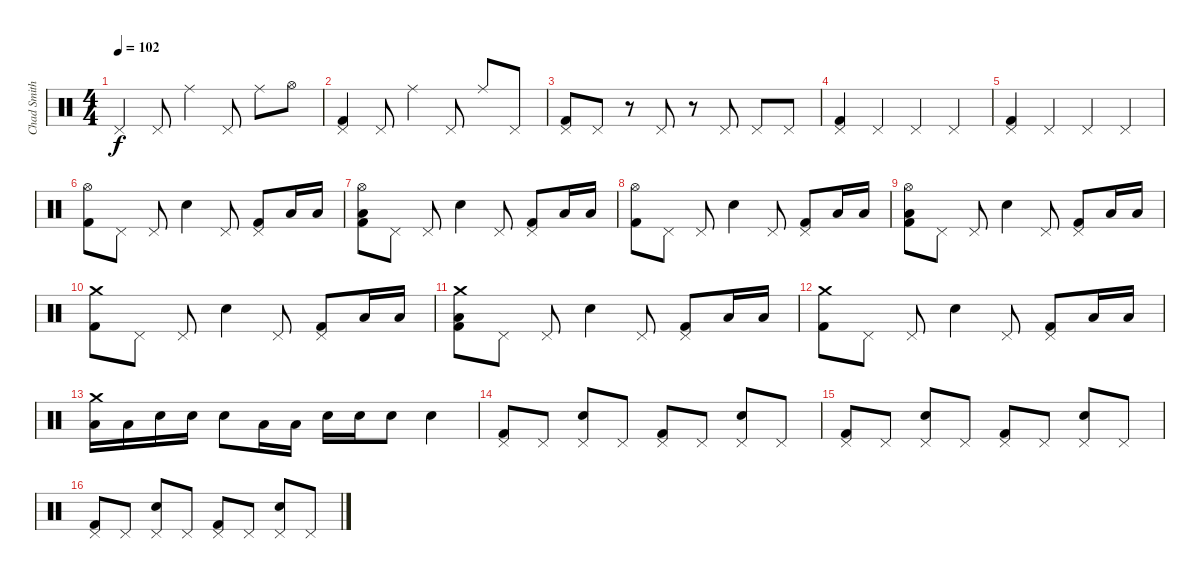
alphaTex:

\track ("Chad Smith (Batterie)" "Chad Smith") {instrument percussion}
\staff {score}
\articulation defaults
\ts (4 4)
\tempo 102
\clef neutral
\ks c "Pedal Hi-Hat (hit)".4{dy f} "Pedal Hi-Hat (hit)".8 "Ride (middle)".4 "Pedal Hi-Hat (hit)".8 "Ride (middle)".8 "Hi-Hat (open)".8
|
("Pedal Hi-Hat (hit)" "Kick (hit) 2").4 "Pedal Hi-Hat (hit)".8 "Ride (middle)".4 "Pedal Hi-Hat (hit)".8 "Ride (middle)".8 "Pedal Hi-Hat (hit)".8 |
("Pedal Hi-Hat (hit)" "Kick (hit) 2").8 "Pedal Hi-Hat (hit)".8 r.8 "Pedal Hi-Hat (hit)".8 r.8 "Pedal Hi-Hat (hit)".8 "Pedal Hi-Hat (hit)".8 "Pedal Hi-Hat (hit)".8 |
("Pedal Hi-Hat (hit)" "Kick (hit) 2").4 "Pedal Hi-Hat (hit)".4 "Pedal Hi-Hat (hit)".4 "Pedal Hi-Hat (hit)".4 |
("Pedal Hi-Hat (hit)" "Kick (hit) 2").4 "Pedal Hi-Hat (hit)".4 "Pedal Hi-Hat (hit)".4 "Pedal Hi-Hat (hit)".4 |
("Hi-Hat (open)" "Kick (hit) 2").8 "Pedal Hi-Hat (hit)".8 "Pedal Hi-Hat (hit)".8 "Electric Snare (hit)".4 "Pedal Hi-Hat (hit)".8 ("Pedal Hi-Hat (hit)" "Kick (hit) 2").8 "Low Tom (hit)".16 "Low Tom (hit)".16 |
("Hi-Hat (open)" "Low Tom (hit)" "Kick (hit) 2").8 "Pedal Hi-Hat (hit)".8 "Pedal Hi-Hat (hit)".8 "Electric Snare (hit)".4 "Pedal Hi-Hat (hit)".8 ("Pedal Hi-Hat (hit)" "Kick (hit) 2").8 "Low Tom (hit)".16 "Low Tom (hit)".16 |
("Hi-Hat (open)" "Kick (hit) 2").8 "Pedal Hi-Hat (hit)".8 "Pedal Hi-Hat (hit)".8 "Electric Snare (hit)".4 "Pedal Hi-Hat (hit)".8 ("Pedal Hi-Hat (hit)" "Kick (hit) 2").8 "Low Tom (hit)".16 "Low Tom (hit)".16 |
("Hi-Hat (open)" "Low Tom (hit)" "Kick (hit) 2").8 "Pedal Hi-Hat (hit)".8 "Pedal Hi-Hat (hit)".8 "Electric Snare (hit)".4 "Pedal Hi-Hat (hit)".8 ("Pedal Hi-Hat (hit)" "Kick (hit) 2").8 "Low Tom (hit)".16 "Low Tom (hit)".16 |
("Crash medium (hit)" "Kick (hit) 2").8 "Pedal Hi-Hat (hit)".8 "Pedal Hi-Hat (hit)".8 "Electric Snare (hit)".4 "Pedal Hi-Hat (hit)".8 ("Pedal Hi-Hat (hit)" "Kick (hit) 2").8 "Low Tom (hit)".16 "Low Tom (hit)".16 |
("Crash medium (hit)" "Low Tom (hit)" "Kick (hit) 2").8 "Pedal Hi-Hat (hit)".8 "Pedal Hi-Hat (hit)".8 "Electric Snare (hit)".4 "Pedal Hi-Hat (hit)".8 ("Pedal Hi-Hat (hit)" "Kick (hit) 2").8 "Low Tom (hit)".16 "Low Tom (hit)".16 |
("Crash medium (hit)" "Kick (hit) 2").8 "Pedal Hi-Hat (hit)".8 "Pedal Hi-Hat (hit)".8 "Electric Snare (hit)".4 "Pedal Hi-Hat (hit)".8 ("Pedal Hi-Hat (hit)" "Kick (hit) 2").8 "Low Tom (hit)".16 "Low Tom (hit)".16 |
("Crash medium (hit)" "Low Tom (hit)").16 "Low Tom (hit)".16 "Electric Snare (hit)".16 "Electric Snare (hit)".16 "Electric Snare (hit)".8 "Low Tom (hit)".16 "Low Tom (hit)".16 "Electric Snare (hit)".16 "Electric Snare (hit)".16 "Electric Snare (hit)".8 "Electric Snare (hit)".4 |
("Pedal Hi-Hat (hit)" "Kick (hit) 2").8 "Pedal Hi-Hat (hit)".8 ("Pedal Hi-Hat (hit)" "Electric Snare (hit)").8 "Pedal Hi-Hat (hit)".8 ("Pedal Hi-Hat (hit)" "Kick (hit) 2").8 "Pedal Hi-Hat (hit)".8 ("Pedal Hi-Hat (hit)" "Electric Snare (hit)").8 "Pedal Hi-Hat (hit)".8 |
("Pedal Hi-Hat (hit)" "Kick (hit) 2").8 "Pedal Hi-Hat (hit)".8 ("Pedal Hi-Hat (hit)" "Electric Snare (hit)").8 "Pedal Hi-Hat (hit)".8 ("Pedal Hi-Hat (hit)" "Kick (hit) 2").8 "Pedal Hi-Hat (hit)".8 ("Pedal Hi-Hat (hit)" "Electric Snare (hit)").8 "Pedal Hi-Hat (hit)".8 |
("Pedal Hi-Hat (hit)" "Kick (hit) 2").8 "Pedal Hi-Hat (hit)".8 ("Pedal Hi-Hat (hit)" "Electric Snare (hit)").8 "Pedal Hi-Hat (hit)".8 ("Pedal Hi-Hat (hit)" "Kick (hit) 2").8 "Pedal Hi-Hat (hit)".8 ("Pedal Hi-Hat (hit)" "Electric Snare (hit)").8 "Pedal Hi-Hat (hit)".8
